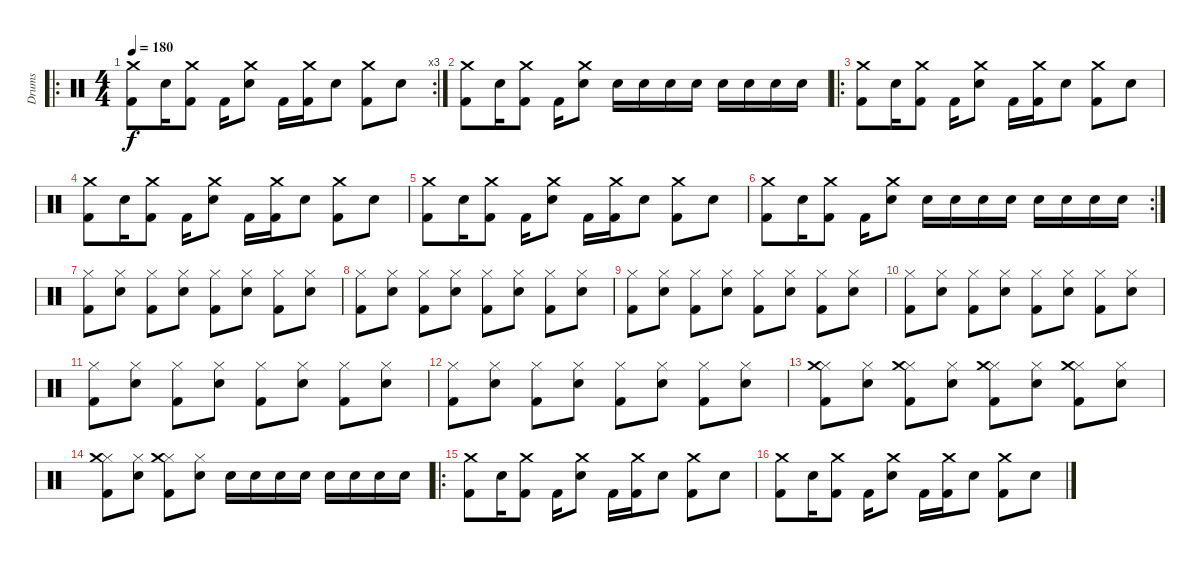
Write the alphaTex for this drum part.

\track ("Drums" "Drums") {instrument percussion}
\staff {score}
\articulation defaults
\ro
\rc 3
\ts (4 4)
\tempo 180
\clef neutral
\ks c
("Kick (hit) 2" "Crash medium (hit)").8{dy f} "Snare (hit) 2".16 ("Crash medium (hit)" "Kick (hit) 2").8 "Kick (hit) 2".16 ("Crash medium (hit)" "Snare (hit) 2").8 "Kick (hit) 2".16 ("Crash medium (hit)" "Kick (hit) 2").16 "Snare (hit) 2".8 ("Crash medium (hit)" "Kick (hit) 2").8 "Snare (hit) 2".8 |
("Kick (hit) 2" "Crash medium (hit)").8 "Snare (hit) 2".16 ("Crash medium (hit)" "Kick (hit) 2").8 "Kick (hit) 2".16 ("Crash medium (hit)" "Snare (hit) 2").8 "Snare (hit) 2".16 "Snare (hit) 2".16 "Snare (hit) 2".16 "Snare (hit) 2".16 "Snare (hit) 2".16 "Snare (hit) 2".16 "Snare (hit) 2".16 "Snare (hit) 2".16 |
\ro
("Kick (hit) 2" "Crash medium (hit)").8 "Snare (hit) 2".16 ("Crash medium (hit)" "Kick (hit) 2").8 "Kick (hit) 2".16 ("Crash medium (hit)" "Snare (hit) 2").8 "Kick (hit) 2".16 ("Crash medium (hit)" "Kick (hit) 2").16 "Snare (hit) 2".8 ("Crash medium (hit)" "Kick (hit) 2").8 "Snare (hit) 2".8 |
("Kick (hit) 2" "Crash medium (hit)").8 "Snare (hit) 2".16 ("Crash medium (hit)" "Kick (hit) 2").8 "Kick (hit) 2".16 ("Crash medium (hit)" "Snare (hit) 2").8 "Kick (hit) 2".16 ("Crash medium (hit)" "Kick (hit) 2").16 "Snare (hit) 2".8 ("Crash medium (hit)" "Kick (hit) 2").8 "Snare (hit) 2".8 |
("Kick (hit) 2" "Crash medium (hit)").8 "Snare (hit) 2".16 ("Crash medium (hit)" "Kick (hit) 2").8 "Kick (hit) 2".16 ("Crash medium (hit)" "Snare (hit) 2").8 "Kick (hit) 2".16 ("Crash medium (hit)" "Kick (hit) 2").16 "Snare (hit) 2".8 ("Crash medium (hit)" "Kick (hit) 2").8 "Snare (hit) 2".8 |
\rc 2
("Kick (hit) 2" "Crash medium (hit)").8 "Snare (hit) 2".16 ("Crash medium (hit)" "Kick (hit) 2").8 "Kick (hit) 2".16 ("Crash medium (hit)" "Snare (hit) 2").8 "Snare (hit) 2".16 "Snare (hit) 2".16 "Snare (hit) 2".16 "Snare (hit) 2".16 "Snare (hit) 2".16 "Snare (hit) 2".16 "Snare (hit) 2".16 "Snare (hit) 2".16 |
("Hi-Hat (closed)" "Kick (hit) 2").8 ("Hi-Hat (closed)" "Snare (hit) 2").8 ("Hi-Hat (closed)" "Kick (hit) 2").8 ("Hi-Hat (closed)" "Snare (hit) 2").8 ("Hi-Hat (closed)" "Kick (hit) 2").8 ("Hi-Hat (closed)" "Snare (hit) 2").8 ("Hi-Hat (closed)" "Kick (hit) 2").8 ("Hi-Hat (closed)" "Snare (hit) 2").8 |
("Hi-Hat (closed)" "Kick (hit) 2").8 ("Hi-Hat (closed)" "Snare (hit) 2").8 ("Hi-Hat (closed)" "Kick (hit) 2").8 ("Hi-Hat (closed)" "Snare (hit) 2").8 ("Hi-Hat (closed)" "Kick (hit) 2").8 ("Hi-Hat (closed)" "Snare (hit) 2").8 ("Hi-Hat (closed)" "Kick (hit) 2").8 ("Hi-Hat (closed)" "Snare (hit) 2").8 |
("Hi-Hat (closed)" "Kick (hit) 2").8 ("Hi-Hat (closed)" "Snare (hit) 2").8 ("Hi-Hat (closed)" "Kick (hit) 2").8 ("Hi-Hat (closed)" "Snare (hit) 2").8 ("Hi-Hat (closed)" "Kick (hit) 2").8 ("Hi-Hat (closed)" "Snare (hit) 2").8 ("Hi-Hat (closed)" "Kick (hit) 2").8 ("Hi-Hat (closed)" "Snare (hit) 2").8 |
("Hi-Hat (closed)" "Kick (hit) 2").8 ("Hi-Hat (closed)" "Snare (hit) 2").8 ("Hi-Hat (closed)" "Kick (hit) 2").8 ("Hi-Hat (closed)" "Snare (hit) 2").8 ("Hi-Hat (closed)" "Kick (hit) 2").8 ("Hi-Hat (closed)" "Snare (hit) 2").8 ("Hi-Hat (closed)" "Kick (hit) 2").8 ("Hi-Hat (closed)" "Snare (hit) 2").8 |
("Hi-Hat (closed)" "Kick (hit) 2").8 ("Hi-Hat (closed)" "Snare (hit) 2").8 ("Hi-Hat (closed)" "Kick (hit) 2").8 ("Hi-Hat (closed)" "Snare (hit) 2").8 ("Hi-Hat (closed)" "Kick (hit) 2").8 ("Hi-Hat (closed)" "Snare (hit) 2").8 ("Hi-Hat (closed)" "Kick (hit) 2").8 ("Hi-Hat (closed)" "Snare (hit) 2").8 |
("Hi-Hat (closed)" "Kick (hit) 2").8 ("Hi-Hat (closed)" "Snare (hit) 2").8 ("Hi-Hat (closed)" "Kick (hit) 2").8 ("Hi-Hat (closed)" "Snare (hit) 2").8 ("Hi-Hat (closed)" "Kick (hit) 2").8 ("Hi-Hat (closed)" "Snare (hit) 2").8 ("Hi-Hat (closed)" "Kick (hit) 2").8 ("Hi-Hat (closed)" "Snare (hit) 2").8 |
("Hi-Hat (closed)" "Crash medium (hit)" "Kick (hit) 2").8 ("Hi-Hat (closed)" "Snare (hit) 2").8 ("Hi-Hat (closed)" "Crash medium (hit)" "Kick (hit) 2").8 ("Hi-Hat (closed)" "Snare (hit) 2").8 ("Hi-Hat (closed)" "Crash medium (hit)" "Kick (hit) 2").8 ("Hi-Hat (closed)" "Snare (hit) 2").8 ("Hi-Hat (closed)" "Crash medium (hit)" "Kick (hit) 2").8 ("Hi-Hat (closed)" "Snare (hit) 2").8 |
("Hi-Hat (closed)" "Crash medium (hit)" "Kick (hit) 2").8 ("Hi-Hat (closed)" "Snare (hit) 2").8 ("Hi-Hat (closed)" "Crash medium (hit)" "Kick (hit) 2").8 ("Hi-Hat (closed)" "Snare (hit) 2").8 "Snare (hit) 2".16 "Snare (hit) 2".16 "Snare (hit) 2".16 "Snare (hit) 2".16 "Snare (hit) 2".16 "Snare (hit) 2".16 "Snare (hit) 2".16 "Snare (hit) 2".16 |
\ro
("Kick (hit) 2" "Crash medium (hit)").8 "Snare (hit) 2".16 ("Crash medium (hit)" "Kick (hit) 2").8 "Kick (hit) 2".16 ("Crash medium (hit)" "Snare (hit) 2").8 "Kick (hit) 2".16 ("Crash medium (hit)" "Kick (hit) 2").16 "Snare (hit) 2".8 ("Crash medium (hit)" "Kick (hit) 2").8 "Snare (hit) 2".8 |
("Kick (hit) 2" "Crash medium (hit)").8 "Snare (hit) 2".16 ("Crash medium (hit)" "Kick (hit) 2").8 "Kick (hit) 2".16 ("Crash medium (hit)" "Snare (hit) 2").8 "Kick (hit) 2".16 ("Crash medium (hit)" "Kick (hit) 2").16 "Snare (hit) 2".8 ("Crash medium (hit)" "Kick (hit) 2").8 "Snare (hit) 2".8
